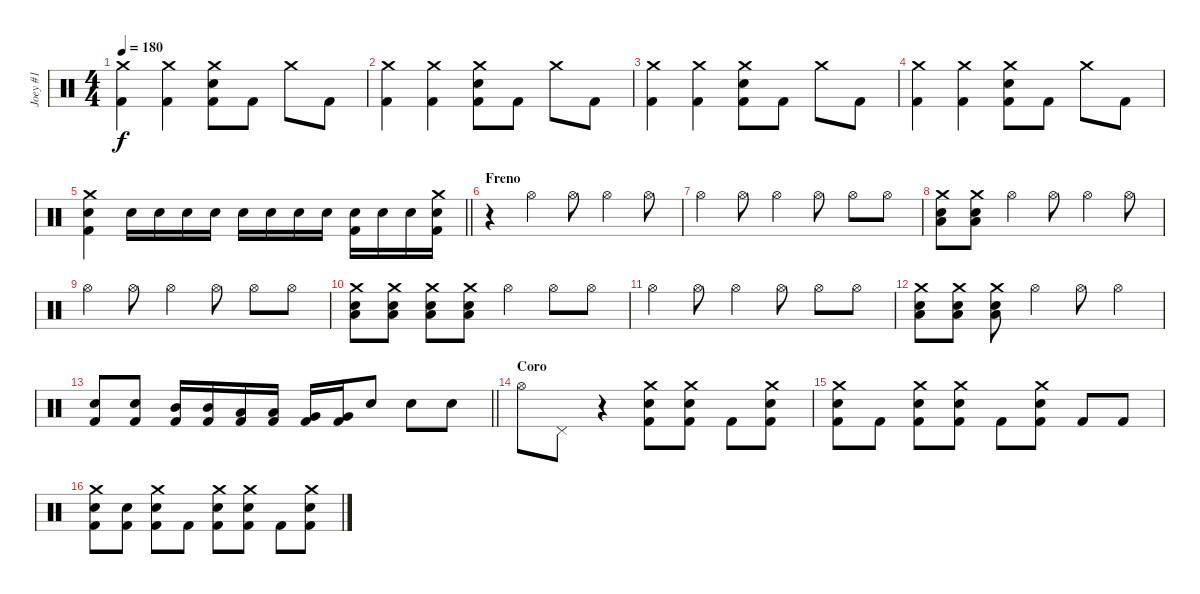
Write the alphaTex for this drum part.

\track ("Joey #1" "Joey #1") {instrument percussion}
\staff {score}
\articulation defaults
\ts (4 4)
\tempo 180
\clef neutral
\ks c
("Crash medium (hit)" "Kick (hit) 2").4{dy f} ("Crash medium (hit)" "Kick (hit) 2").4 ("Crash medium (hit)" "Electric Snare (hit)" "Kick (hit) 2").8 "Kick (hit) 2".8 "Crash medium (hit)".8 "Kick (hit) 2".8 |
("Crash medium (hit)" "Kick (hit) 2").4 ("Crash medium (hit)" "Kick (hit) 2").4 ("Crash medium (hit)" "Electric Snare (hit)" "Kick (hit) 2").8 "Kick (hit) 2".8 "Crash medium (hit)".8 "Kick (hit) 2".8 |
("Crash medium (hit)" "Kick (hit) 2").4 ("Crash medium (hit)" "Kick (hit) 2").4 ("Crash medium (hit)" "Electric Snare (hit)" "Kick (hit) 2").8 "Kick (hit) 2".8 "Crash medium (hit)".8 "Kick (hit) 2".8 |
("Crash medium (hit)" "Kick (hit) 2").4 ("Crash medium (hit)" "Kick (hit) 2").4 ("Crash medium (hit)" "Electric Snare (hit)" "Kick (hit) 2").8 "Kick (hit) 2".8 "Crash medium (hit)".8 "Kick (hit) 2".8 |
\barLineRight lightlight
("Crash medium (hit)" "Electric Snare (hit)" "Kick (hit) 2").4 "Electric Snare (hit)".16 "Electric Snare (hit)".16 "Electric Snare (hit)".16 "Electric Snare (hit)".16 "Electric Snare (hit)".16 "Electric Snare (hit)".16 "Electric Snare (hit)".16 "Electric Snare (hit)".16 ("Electric Snare (hit)" "Kick (hit) 2").16 "Electric Snare (hit)".16 "Electric Snare (hit)".16 ("Crash medium (hit)" "Electric Snare (hit)" "Kick (hit) 2").16 |
\section ("" "Freno")
r.4 "Hi-Hat (open)".4 "Hi-Hat (open)".8 "Hi-Hat (open)".4 "Hi-Hat (open)".8 |
"Hi-Hat (open)".4 "Hi-Hat (open)".8 "Hi-Hat (open)".4 "Hi-Hat (open)".8 "Hi-Hat (open)".8 "Hi-Hat (open)".8 |
("Crash medium (hit)" "Electric Snare (hit)" "Low Floor Tom (hit)").8 ("Crash medium (hit)" "Electric Snare (hit)" "Low Floor Tom (hit)").8 "Hi-Hat (open)".4 "Hi-Hat (open)".8 "Hi-Hat (open)".4 "Hi-Hat (open)".8 |
"Hi-Hat (open)".4 "Hi-Hat (open)".8 "Hi-Hat (open)".4 "Hi-Hat (open)".8 "Hi-Hat (open)".8 "Hi-Hat (open)".8 |
("Crash medium (hit)" "Electric Snare (hit)" "Low Floor Tom (hit)").8 ("Crash medium (hit)" "Electric Snare (hit)" "Low Floor Tom (hit)").8 ("Crash medium (hit)" "Electric Snare (hit)" "Low Floor Tom (hit)").8 ("Crash medium (hit)" "Electric Snare (hit)" "Low Floor Tom (hit)").8 "Hi-Hat (open)".4 "Hi-Hat (open)".8 "Hi-Hat (open)".8 |
"Hi-Hat (open)".4 "Hi-Hat (open)".8 "Hi-Hat (open)".4 "Hi-Hat (open)".8 "Hi-Hat (open)".8 "Hi-Hat (open)".8 |
("Crash medium (hit)" "Electric Snare (hit)" "Low Floor Tom (hit)").8 ("Crash medium (hit)" "Electric Snare (hit)" "Low Floor Tom (hit)").8 ("Crash medium (hit)" "Electric Snare (hit)" "Low Floor Tom (hit)").8 "Hi-Hat (open)".4 "Hi-Hat (open)".8 "Hi-Hat (open)".4 |
\barLineRight lightlight
("Electric Snare (hit)" "Kick (hit) 2").8 ("Electric Snare (hit)" "Kick (hit) 2").8 ("Mid Tom (hit)" "Kick (hit) 2").16 ("Mid Tom (hit)" "Kick (hit) 2").16 ("Low Tom (hit)" "Kick (hit) 2").16 ("Low Tom (hit)" "Kick (hit) 2").16 ("Very Low Tom (hit)" "Kick (hit) 2").16 ("Very Low Tom (hit)" "Kick (hit) 2").16 "Electric Snare (hit)".8 "Electric Snare (hit)".8 "Electric Snare (hit)".8 |
\section ("" "Coro")
"Hi-Hat (open)".8 "Pedal Hi-Hat (hit)".8 r.4 ("Crash medium (hit)" "Electric Snare (hit)" "Kick (hit) 2").8 ("Crash medium (hit)" "Electric Snare (hit)" "Kick (hit) 2").8 "Kick (hit) 2".8 ("Crash medium (hit)" "Electric Snare (hit)" "Kick (hit) 2").8 |
("Crash medium (hit)" "Electric Snare (hit)" "Kick (hit) 2").8 "Kick (hit) 2".8 ("Crash medium (hit)" "Electric Snare (hit)" "Kick (hit) 2").8 ("Crash medium (hit)" "Electric Snare (hit)" "Kick (hit) 2").8 "Kick (hit) 2".8 ("Crash medium (hit)" "Electric Snare (hit)" "Kick (hit) 2").8 "Kick (hit) 2".8 "Kick (hit) 2".8 |
("Crash medium (hit)" "Electric Snare (hit)" "Kick (hit) 2").8 ("Electric Snare (hit)" "Kick (hit) 2").8 ("Crash medium (hit)" "Electric Snare (hit)" "Kick (hit) 2").8 "Kick (hit) 2".8 ("Crash medium (hit)" "Electric Snare (hit)" "Kick (hit) 2").8 ("Crash medium (hit)" "Electric Snare (hit)" "Kick (hit) 2").8 "Kick (hit) 2".8 ("Crash medium (hit)" "Electric Snare (hit)" "Kick (hit) 2").8
